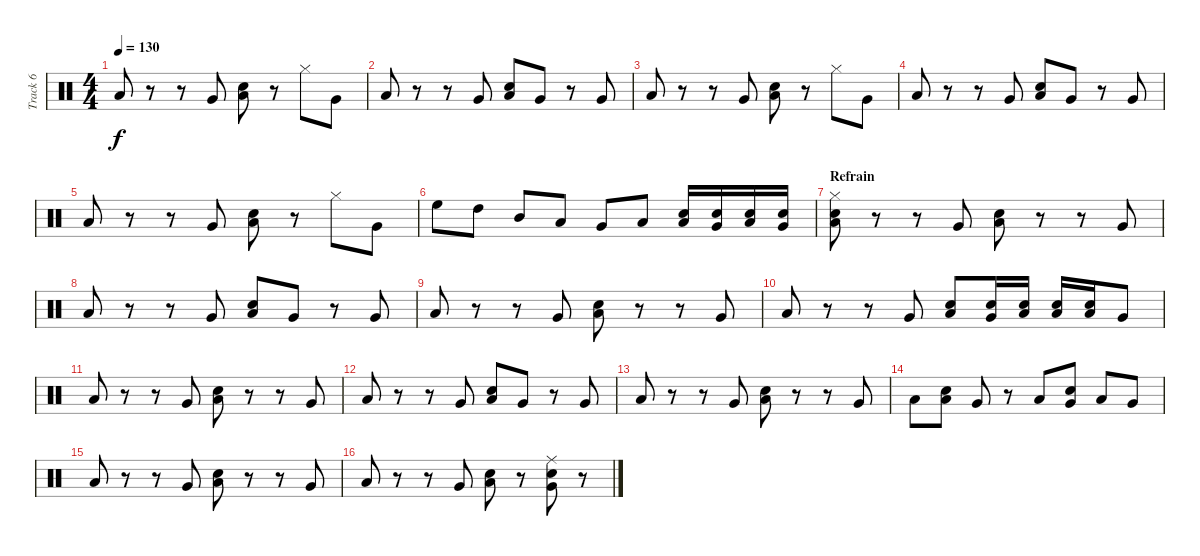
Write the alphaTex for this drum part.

\track ("Track 6" "Track 6") {instrument percussion}
\staff {score}
\articulation defaults
\ts (4 4)
\tempo 130
\clef neutral
\ks c "Low Floor Tom (hit)".8{dy f}
r.8 r.8 "Very Low Tom (hit)".8 ("Low Tom (hit)" "Snare (hit) 2").8 r.8 "Hi-Hat (closed)".8 "Very Low Tom (hit)".8 |
"Low Floor Tom (hit)".8 r.8 r.8 "Very Low Tom (hit)".8 ("Low Tom (hit)" "Snare (hit) 2").8 "Very Low Tom (hit)".8 r.8 "Very Low Tom (hit)".8 |
"Low Floor Tom (hit)".8 r.8 r.8 "Very Low Tom (hit)".8 ("Low Tom (hit)" "Snare (hit) 2").8 r.8 "Hi-Hat (closed)".8 "Very Low Tom (hit)".8 |
"Low Floor Tom (hit)".8 r.8 r.8 "Very Low Tom (hit)".8 ("Low Tom (hit)" "Snare (hit) 2").8 "Very Low Tom (hit)".8 r.8 "Very Low Tom (hit)".8 |
"Low Floor Tom (hit)".8 r.8 r.8 "Very Low Tom (hit)".8 ("Low Tom (hit)" "Snare (hit) 2").8 r.8 "Hi-Hat (closed)".8 "Very Low Tom (hit)".8 |
"High Floor Tom (hit)".8 "High Tom (hit)".8 "Mid Tom (hit)".8 "Low Tom (hit)".8 "Very Low Tom (hit)".8 "Low Floor Tom (hit)".8 ("Low Tom (hit)" "Snare (hit) 2").16 ("Very Low Tom (hit)" "Snare (hit) 2").16 ("Low Tom (hit)" "Snare (hit) 2").16 ("Very Low Tom (hit)" "Snare (hit) 2").16 |
\section ("" "Refrain")
("Low Floor Tom (hit)" "Snare (hit) 2" "Hi-Hat (closed)").8 r.8 r.8 "Very Low Tom (hit)".8 ("Low Tom (hit)" "Snare (hit) 2").8 r.8 r.8 "Very Low Tom (hit)".8 |
"Low Floor Tom (hit)".8 r.8 r.8 "Very Low Tom (hit)".8 ("Low Tom (hit)" "Snare (hit) 2").8 "Very Low Tom (hit)".8 r.8 "Very Low Tom (hit)".8 |
"Low Floor Tom (hit)".8 r.8 r.8 "Very Low Tom (hit)".8 ("Low Tom (hit)" "Snare (hit) 2").8 r.8 r.8 "Very Low Tom (hit)".8 |
"Low Floor Tom (hit)".8 r.8 r.8 "Very Low Tom (hit)".8 ("Low Tom (hit)" "Snare (hit) 2").8 ("Very Low Tom (hit)" "Snare (hit) 2").16 ("Low Tom (hit)" "Snare (hit) 2").16 ("Low Floor Tom (hit)" "Snare (hit) 2").16 ("Low Tom (hit)" "Snare (hit) 2").16 "Very Low Tom (hit)".8 |
"Low Floor Tom (hit)".8 r.8 r.8 "Very Low Tom (hit)".8 ("Low Tom (hit)" "Snare (hit) 2").8 r.8 r.8 "Very Low Tom (hit)".8 |
"Low Floor Tom (hit)".8 r.8 r.8 "Very Low Tom (hit)".8 ("Low Tom (hit)" "Snare (hit) 2").8 "Very Low Tom (hit)".8 r.8 "Very Low Tom (hit)".8 |
"Low Floor Tom (hit)".8 r.8 r.8 "Very Low Tom (hit)".8 ("Low Tom (hit)" "Snare (hit) 2").8 r.8 r.8 "Very Low Tom (hit)".8 |
"Low Floor Tom (hit)".8 ("Snare (hit) 2" "Low Tom (hit)").8 "Very Low Tom (hit)".8 r.8 "Low Tom (hit)".8 ("Very Low Tom (hit)" "Snare (hit) 2").8 "Low Tom (hit)".8 "Very Low Tom (hit)".8 |
"Low Floor Tom (hit)".8 r.8 r.8 "Very Low Tom (hit)".8 ("Low Tom (hit)" "Snare (hit) 2").8 r.8 r.8 "Very Low Tom (hit)".8 |
"Low Floor Tom (hit)".8 r.8 r.8 "Very Low Tom (hit)".8 ("Low Tom (hit)" "Snare (hit) 2").8 r.8 ("Very Low Tom (hit)" "Snare (hit) 2" "Ride (middle)").8 r.8
